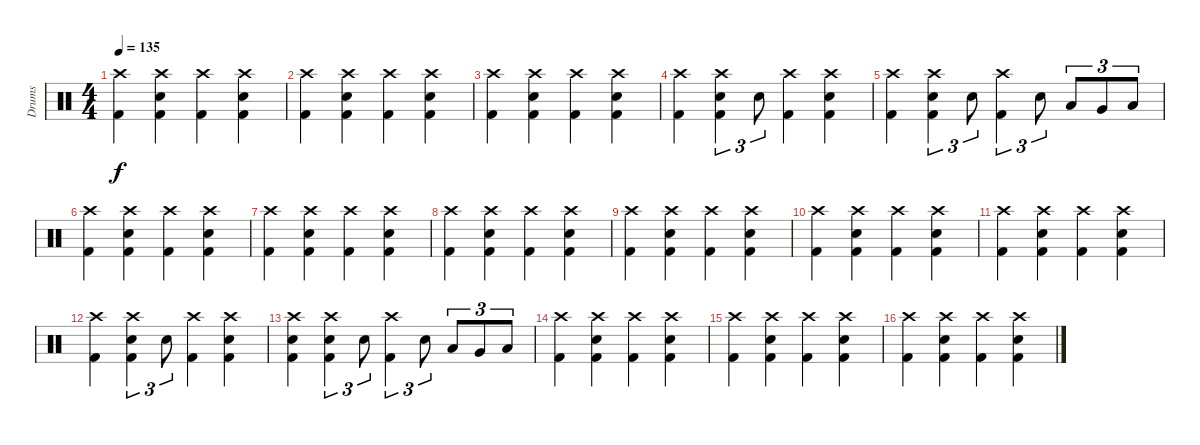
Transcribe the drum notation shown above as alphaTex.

\track ("Drums" "Drums") {instrument percussion}
\staff {score}
\articulation defaults
\ts (4 4)
\tempo 135
\clef neutral
\ks c
("Crash high (hit)" "Kick (hit) 2").4{dy f} ("Crash high (hit)" "Electric Snare (hit)" "Kick (hit) 2").4 ("Crash high (hit)" "Kick (hit) 2").4 ("Crash high (hit)" "Electric Snare (hit)" "Kick (hit) 2").4 |
("Crash high (hit)" "Kick (hit) 2").4 ("Crash high (hit)" "Electric Snare (hit)" "Kick (hit) 2").4 ("Crash high (hit)" "Kick (hit) 2").4 ("Crash high (hit)" "Electric Snare (hit)" "Kick (hit) 2").4 |
("Crash high (hit)" "Kick (hit) 2").4 ("Crash high (hit)" "Electric Snare (hit)" "Kick (hit) 2").4 ("Crash high (hit)" "Kick (hit) 2").4 ("Crash high (hit)" "Electric Snare (hit)" "Kick (hit) 2").4 |
("Crash high (hit)" "Kick (hit) 2").4 ("Crash high (hit)" "Electric Snare (hit)" "Kick (hit) 2").4{tu (3 2)} "Electric Snare (hit)".8{tu (3 2)} ("Crash high (hit)" "Kick (hit) 2").4 ("Crash high (hit)" "Electric Snare (hit)" "Kick (hit) 2").4 |
("Crash high (hit)" "Kick (hit) 2").4 ("Crash high (hit)" "Electric Snare (hit)" "Kick (hit) 2").4{tu (3 2)} "Electric Snare (hit)".8{tu (3 2)} ("Crash high (hit)" "Kick (hit) 2").4{tu (3 2)} "Electric Snare (hit)".8{tu (3 2)} "Low Tom (hit)".8{tu (3 2)} "Very Low Tom (hit)".8{tu (3 2)} "Low Floor Tom (hit)".8{tu (3 2)} |
("Crash high (hit)" "Kick (hit) 2").4 ("Crash high (hit)" "Electric Snare (hit)" "Kick (hit) 2").4 ("Crash high (hit)" "Kick (hit) 2").4 ("Crash high (hit)" "Electric Snare (hit)" "Kick (hit) 2").4 |
("Crash high (hit)" "Kick (hit) 2").4 ("Crash high (hit)" "Electric Snare (hit)" "Kick (hit) 2").4 ("Crash high (hit)" "Kick (hit) 2").4 ("Crash high (hit)" "Electric Snare (hit)" "Kick (hit) 2").4 |
("Crash high (hit)" "Kick (hit) 2").4 ("Crash high (hit)" "Electric Snare (hit)" "Kick (hit) 2").4 ("Crash high (hit)" "Kick (hit) 2").4 ("Crash high (hit)" "Electric Snare (hit)" "Kick (hit) 2").4 |
("Crash high (hit)" "Kick (hit) 2").4 ("Crash high (hit)" "Electric Snare (hit)" "Kick (hit) 2").4 ("Crash high (hit)" "Kick (hit) 2").4 ("Crash high (hit)" "Electric Snare (hit)" "Kick (hit) 2").4 |
("Crash high (hit)" "Kick (hit) 2").4 ("Crash high (hit)" "Electric Snare (hit)" "Kick (hit) 2").4 ("Crash high (hit)" "Kick (hit) 2").4 ("Crash high (hit)" "Electric Snare (hit)" "Kick (hit) 2").4 |
("Crash high (hit)" "Kick (hit) 2").4 ("Crash high (hit)" "Electric Snare (hit)" "Kick (hit) 2").4 ("Crash high (hit)" "Kick (hit) 2").4 ("Crash high (hit)" "Electric Snare (hit)" "Kick (hit) 2").4 |
("Crash high (hit)" "Kick (hit) 2").4 ("Crash high (hit)" "Electric Snare (hit)" "Kick (hit) 2").4{tu (3 2)} "Electric Snare (hit)".8{tu (3 2)} ("Crash high (hit)" "Kick (hit) 2").4 ("Crash high (hit)" "Electric Snare (hit)" "Kick (hit) 2").4 |
("Crash high (hit)" "Electric Snare (hit)" "Kick (hit) 2").4 ("Crash high (hit)" "Electric Snare (hit)" "Kick (hit) 2").4{tu (3 2)} "Electric Snare (hit)".8{tu (3 2)} ("Crash high (hit)" "Kick (hit) 2").4{tu (3 2)} "Electric Snare (hit)".8{tu (3 2)} "Low Tom (hit)".8{tu (3 2)} "Very Low Tom (hit)".8{tu (3 2)} "Low Floor Tom (hit)".8{tu (3 2)} |
("Crash high (hit)" "Kick (hit) 2").4 ("Crash high (hit)" "Electric Snare (hit)" "Kick (hit) 2").4 ("Crash high (hit)" "Kick (hit) 2").4 ("Crash high (hit)" "Electric Snare (hit)" "Kick (hit) 2").4 |
("Crash high (hit)" "Kick (hit) 2").4 ("Crash high (hit)" "Electric Snare (hit)" "Kick (hit) 2").4 ("Crash high (hit)" "Kick (hit) 2").4 ("Crash high (hit)" "Electric Snare (hit)" "Kick (hit) 2").4 |
("Crash high (hit)" "Kick (hit) 2").4 ("Crash high (hit)" "Electric Snare (hit)" "Kick (hit) 2").4 ("Crash high (hit)" "Kick (hit) 2").4 ("Crash high (hit)" "Electric Snare (hit)" "Kick (hit) 2").4
